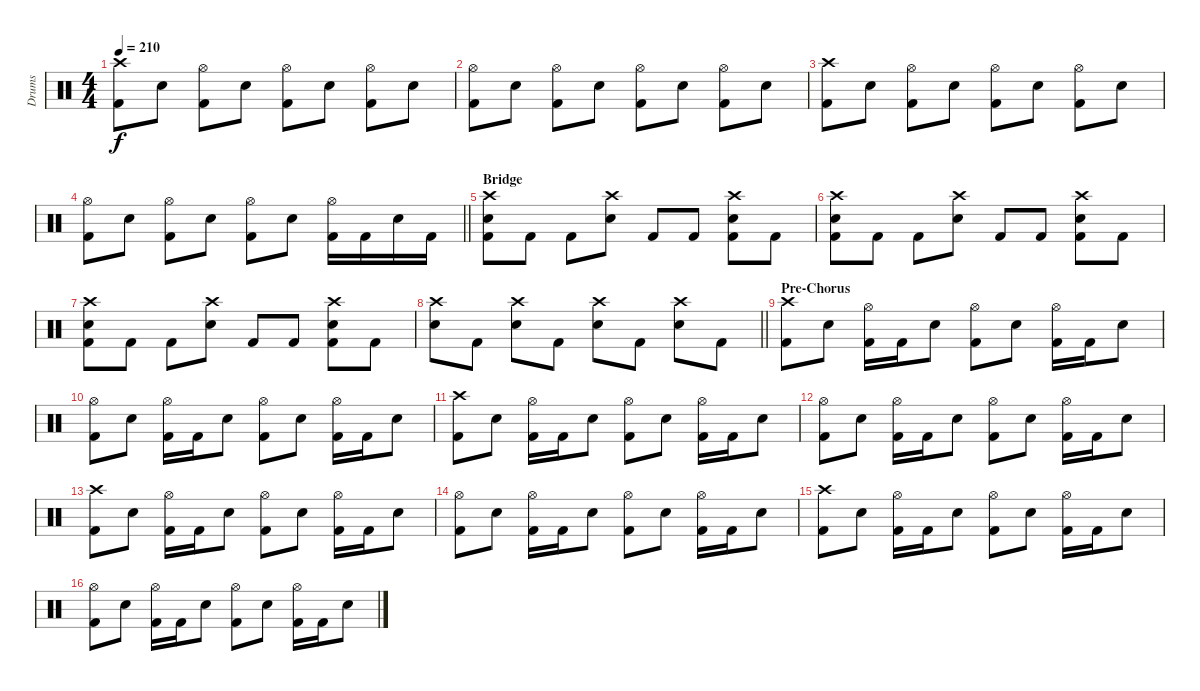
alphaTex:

\track ("Drums" "Drums") {instrument percussion}
\staff {score}
\articulation defaults
\ts (4 4)
\tempo 210
\clef neutral
\ks c
("Crash high (hit)" "Kick (hit) 2").8{dy f} "Snare (hit) 2".8 ("Hi-Hat (open)" "Kick (hit) 2").8 "Snare (hit) 2".8 ("Hi-Hat (open)" "Kick (hit) 2").8 "Snare (hit) 2".8 ("Hi-Hat (open)" "Kick (hit) 2").8 "Snare (hit) 2".8 |
("Hi-Hat (open)" "Kick (hit) 2").8 "Snare (hit) 2".8 ("Hi-Hat (open)" "Kick (hit) 2").8 "Snare (hit) 2".8 ("Hi-Hat (open)" "Kick (hit) 2").8 "Snare (hit) 2".8 ("Hi-Hat (open)" "Kick (hit) 2").8 "Snare (hit) 2".8 |
("Crash high (hit)" "Kick (hit) 2").8 "Snare (hit) 2".8 ("Hi-Hat (open)" "Kick (hit) 2").8 "Snare (hit) 2".8 ("Hi-Hat (open)" "Kick (hit) 2").8 "Snare (hit) 2".8 ("Hi-Hat (open)" "Kick (hit) 2").8 "Snare (hit) 2".8 |
\barLineRight lightlight
("Hi-Hat (open)" "Kick (hit) 2").8 "Snare (hit) 2".8 ("Hi-Hat (open)" "Kick (hit) 2").8 "Snare (hit) 2".8 ("Hi-Hat (open)" "Kick (hit) 2").8 "Snare (hit) 2".8 ("Hi-Hat (open)" "Kick (hit) 2").16 "Kick (hit) 2".16 "Snare (hit) 2".16 "Kick (hit) 2".16 |
\section ("" "Bridge")
("Crash high (hit)" "Snare (hit) 2" "Kick (hit) 2").8 "Kick (hit) 2".8 "Kick (hit) 2".8 ("Crash high (hit)" "Snare (hit) 2").8 "Kick (hit) 2".8 "Kick (hit) 2".8 ("Crash high (hit)" "Snare (hit) 2" "Kick (hit) 2").8 "Kick (hit) 2".8 |
("Crash high (hit)" "Snare (hit) 2" "Kick (hit) 2").8 "Kick (hit) 2".8 "Kick (hit) 2".8 ("Crash high (hit)" "Snare (hit) 2").8 "Kick (hit) 2".8 "Kick (hit) 2".8 ("Crash high (hit)" "Snare (hit) 2" "Kick (hit) 2").8 "Kick (hit) 2".8 |
("Crash high (hit)" "Snare (hit) 2" "Kick (hit) 2").8 "Kick (hit) 2".8 "Kick (hit) 2".8 ("Crash high (hit)" "Snare (hit) 2").8 "Kick (hit) 2".8 "Kick (hit) 2".8 ("Crash high (hit)" "Snare (hit) 2" "Kick (hit) 2").8 "Kick (hit) 2".8 |
\barLineRight lightlight
("Crash high (hit)" "Snare (hit) 2").8 "Kick (hit) 2".8 ("Crash high (hit)" "Snare (hit) 2").8 "Kick (hit) 2".8 ("Crash high (hit)" "Snare (hit) 2").8 "Kick (hit) 2".8 ("Crash high (hit)" "Snare (hit) 2").8 "Kick (hit) 2".8 |
\section ("" "Pre-Chorus")
("Crash high (hit)" "Kick (hit) 2").8 "Snare (hit) 2".8 ("Hi-Hat (open)" "Kick (hit) 2").16 "Kick (hit) 2".16 "Snare (hit) 2".8 ("Hi-Hat (open)" "Kick (hit) 2").8 "Snare (hit) 2".8 ("Hi-Hat (open)" "Kick (hit) 2").16 "Kick (hit) 2".16 "Snare (hit) 2".8 |
("Hi-Hat (open)" "Kick (hit) 2").8 "Snare (hit) 2".8 ("Hi-Hat (open)" "Kick (hit) 2").16 "Kick (hit) 2".16 "Snare (hit) 2".8 ("Hi-Hat (open)" "Kick (hit) 2").8 "Snare (hit) 2".8 ("Hi-Hat (open)" "Kick (hit) 2").16 "Kick (hit) 2".16 "Snare (hit) 2".8 |
("Crash high (hit)" "Kick (hit) 2").8 "Snare (hit) 2".8 ("Hi-Hat (open)" "Kick (hit) 2").16 "Kick (hit) 2".16 "Snare (hit) 2".8 ("Hi-Hat (open)" "Kick (hit) 2").8 "Snare (hit) 2".8 ("Hi-Hat (open)" "Kick (hit) 2").16 "Kick (hit) 2".16 "Snare (hit) 2".8 |
("Hi-Hat (open)" "Kick (hit) 2").8 "Snare (hit) 2".8 ("Hi-Hat (open)" "Kick (hit) 2").16 "Kick (hit) 2".16 "Snare (hit) 2".8 ("Hi-Hat (open)" "Kick (hit) 2").8 "Snare (hit) 2".8 ("Hi-Hat (open)" "Kick (hit) 2").16 "Kick (hit) 2".16 "Snare (hit) 2".8 |
("Crash high (hit)" "Kick (hit) 2").8 "Snare (hit) 2".8 ("Hi-Hat (open)" "Kick (hit) 2").16 "Kick (hit) 2".16 "Snare (hit) 2".8 ("Hi-Hat (open)" "Kick (hit) 2").8 "Snare (hit) 2".8 ("Hi-Hat (open)" "Kick (hit) 2").16 "Kick (hit) 2".16 "Snare (hit) 2".8 |
("Hi-Hat (open)" "Kick (hit) 2").8 "Snare (hit) 2".8 ("Hi-Hat (open)" "Kick (hit) 2").16 "Kick (hit) 2".16 "Snare (hit) 2".8 ("Hi-Hat (open)" "Kick (hit) 2").8 "Snare (hit) 2".8 ("Hi-Hat (open)" "Kick (hit) 2").16 "Kick (hit) 2".16 "Snare (hit) 2".8 |
("Crash high (hit)" "Kick (hit) 2").8 "Snare (hit) 2".8 ("Hi-Hat (open)" "Kick (hit) 2").16 "Kick (hit) 2".16 "Snare (hit) 2".8 ("Hi-Hat (open)" "Kick (hit) 2").8 "Snare (hit) 2".8 ("Hi-Hat (open)" "Kick (hit) 2").16 "Kick (hit) 2".16 "Snare (hit) 2".8 |
("Hi-Hat (open)" "Kick (hit) 2").8 "Snare (hit) 2".8 ("Hi-Hat (open)" "Kick (hit) 2").16 "Kick (hit) 2".16 "Snare (hit) 2".8 ("Hi-Hat (open)" "Kick (hit) 2").8 "Snare (hit) 2".8 ("Hi-Hat (open)" "Kick (hit) 2").16 "Kick (hit) 2".16 "Snare (hit) 2".8
